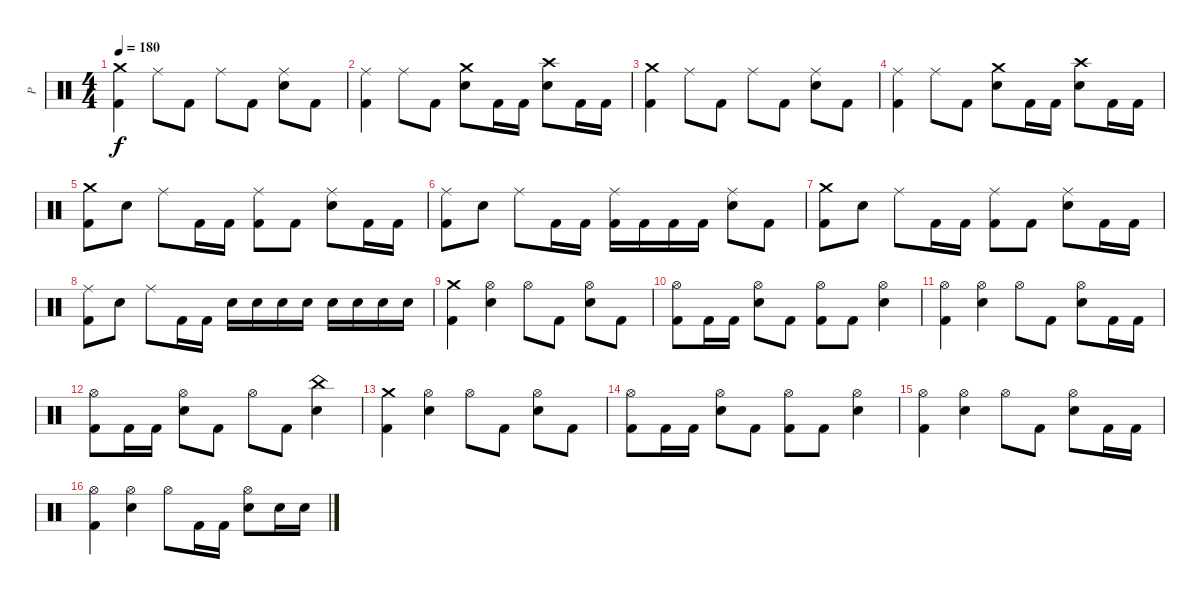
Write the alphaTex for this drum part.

\track ("P" "P") {instrument percussion}
\staff {score}
\articulation defaults
\ts (4 4)
\tempo 180
\clef neutral
\ks c
("Crash medium (hit)" "Kick (hit) 2").4{dy f} "Ride (middle)".8 "Kick (hit) 2".8 "Ride (middle)".8 "Kick (hit) 2".8 ("Ride (middle)" "Electric Snare (hit)").8 "Kick (hit) 2".8 |
("Ride (middle)" "Kick (hit) 2").4 "Ride (middle)".8 "Kick (hit) 2".8 ("Crash medium (hit)" "Electric Snare (hit)").8 "Kick (hit) 2".16 "Kick (hit) 2".16 ("Crash high (hit)" "Electric Snare (hit)").8 "Kick (hit) 2".16 "Kick (hit) 2".16 |
("Crash medium (hit)" "Kick (hit) 2").4 "Ride (middle)".8 "Kick (hit) 2".8 "Ride (middle)".8 "Kick (hit) 2".8 ("Ride (middle)" "Electric Snare (hit)").8 "Kick (hit) 2".8 |
("Ride (middle)" "Kick (hit) 2").4 "Ride (middle)".8 "Kick (hit) 2".8 ("Crash medium (hit)" "Electric Snare (hit)").8 "Kick (hit) 2".16 "Kick (hit) 2".16 ("Crash high (hit)" "Electric Snare (hit)").8 "Kick (hit) 2".16 "Kick (hit) 2".16 |
("Crash medium (hit)" "Kick (hit) 2").8 "Electric Snare (hit)".8 "Ride (middle)".8 "Kick (hit) 2".16 "Kick (hit) 2".16 ("Ride (middle)" "Kick (hit) 2").8 "Kick (hit) 2".8 ("Ride (middle)" "Electric Snare (hit)").8 "Kick (hit) 2".16 "Kick (hit) 2".16 |
("Ride (middle)" "Kick (hit) 2").8 "Electric Snare (hit)".8 "Ride (middle)".8 "Kick (hit) 2".16 "Kick (hit) 2".16 ("Ride (middle)" "Kick (hit) 2").16 "Kick (hit) 2".16 "Kick (hit) 2".16 "Kick (hit) 2".16 ("Ride (middle)" "Electric Snare (hit)").8 "Kick (hit) 2".8 |
("Crash medium (hit)" "Kick (hit) 2").8 "Electric Snare (hit)".8 "Ride (middle)".8 "Kick (hit) 2".16 "Kick (hit) 2".16 ("Ride (middle)" "Kick (hit) 2").8 "Kick (hit) 2".8 ("Ride (middle)" "Electric Snare (hit)").8 "Kick (hit) 2".16 "Kick (hit) 2".16 |
("Ride (middle)" "Kick (hit) 2").8 "Electric Snare (hit)".8 "Ride (middle)".8 "Kick (hit) 2".16 "Kick (hit) 2".16 "Electric Snare (hit)".16 "Electric Snare (hit)".16 "Electric Snare (hit)".16 "Electric Snare (hit)".16 "Electric Snare (hit)".16 "Electric Snare (hit)".16 "Electric Snare (hit)".16 "Electric Snare (hit)".16 |
("Crash medium (hit)" "Kick (hit) 2").4 ("Hi-Hat (open)" "Electric Snare (hit)").4 "Hi-Hat (open)".8 "Kick (hit) 2".8 ("Hi-Hat (open)" "Electric Snare (hit)").8 "Kick (hit) 2".8 |
("Hi-Hat (open)" "Kick (hit) 2").8 "Kick (hit) 2".16 "Kick (hit) 2".16 ("Hi-Hat (open)" "Electric Snare (hit)").8 "Kick (hit) 2".8 ("Hi-Hat (open)" "Kick (hit) 2").8 "Kick (hit) 2".8 ("Hi-Hat (open)" "Electric Snare (hit)").4 |
("Hi-Hat (open)" "Kick (hit) 2").4 ("Hi-Hat (open)" "Electric Snare (hit)").4 "Hi-Hat (open)".8 "Kick (hit) 2".8 ("Hi-Hat (open)" "Electric Snare (hit)").8 "Kick (hit) 2".16 "Kick (hit) 2".16 |
("Hi-Hat (open)" "Kick (hit) 2").8 "Kick (hit) 2".16 "Kick (hit) 2".16 ("Hi-Hat (open)" "Electric Snare (hit)").8 "Kick (hit) 2".8 "Hi-Hat (open)".8 "Kick (hit) 2".8 ("China (hit)" "Electric Snare (hit)").4 |
("Crash medium (hit)" "Kick (hit) 2").4 ("Hi-Hat (open)" "Electric Snare (hit)").4 "Hi-Hat (open)".8 "Kick (hit) 2".8 ("Hi-Hat (open)" "Electric Snare (hit)").8 "Kick (hit) 2".8 |
("Hi-Hat (open)" "Kick (hit) 2").8 "Kick (hit) 2".16 "Kick (hit) 2".16 ("Hi-Hat (open)" "Electric Snare (hit)").8 "Kick (hit) 2".8 ("Hi-Hat (open)" "Kick (hit) 2").8 "Kick (hit) 2".8 ("Hi-Hat (open)" "Electric Snare (hit)").4 |
("Hi-Hat (open)" "Kick (hit) 2").4 ("Hi-Hat (open)" "Electric Snare (hit)").4 "Hi-Hat (open)".8 "Kick (hit) 2".8 ("Hi-Hat (open)" "Electric Snare (hit)").8 "Kick (hit) 2".16 "Kick (hit) 2".16 |
("Hi-Hat (open)" "Kick (hit) 2").4 ("Hi-Hat (open)" "Electric Snare (hit)").4 "Hi-Hat (open)".8 "Kick (hit) 2".16 "Kick (hit) 2".16 ("Hi-Hat (open)" "Electric Snare (hit)").8 "Electric Snare (hit)".16 "Electric Snare (hit)".16
